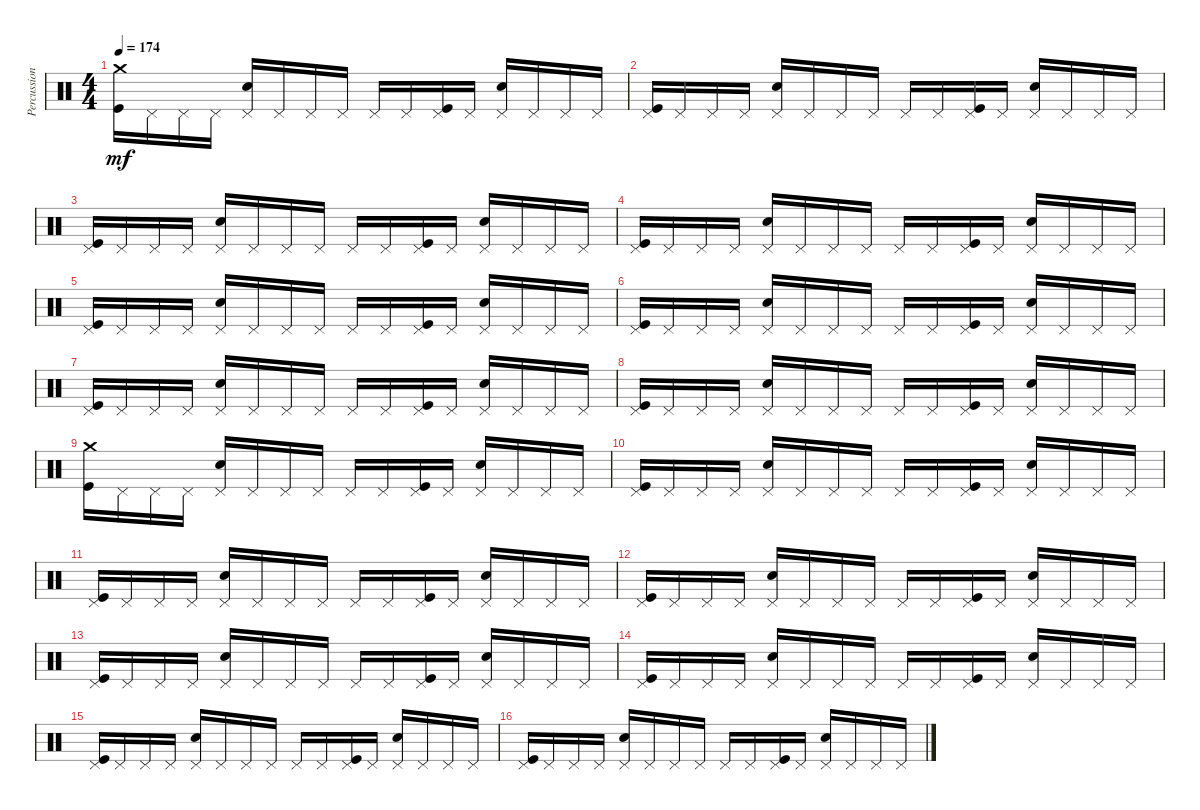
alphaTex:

\track ("Percussion" "Percussion") {instrument percussion}
\staff {score}
\articulation defaults
\ts (4 4)
\tempo 174
\clef neutral
\ks c
("Crash medium (hit)" "Kick (hit)").16{dy mf} "Pedal Hi-Hat (hit)".16 "Pedal Hi-Hat (hit)".16 "Pedal Hi-Hat (hit)".16 ("Pedal Hi-Hat (hit)" "Electric Snare (hit)").16 "Pedal Hi-Hat (hit)".16 "Pedal Hi-Hat (hit)".16 "Pedal Hi-Hat (hit)".16 "Pedal Hi-Hat (hit)".16 "Pedal Hi-Hat (hit)".16 ("Pedal Hi-Hat (hit)" "Kick (hit)").16 "Pedal Hi-Hat (hit)".16 ("Pedal Hi-Hat (hit)" "Electric Snare (hit)").16 "Pedal Hi-Hat (hit)".16 "Pedal Hi-Hat (hit)".16 "Pedal Hi-Hat (hit)".16 |
("Pedal Hi-Hat (hit)" "Kick (hit)").16 "Pedal Hi-Hat (hit)".16 "Pedal Hi-Hat (hit)".16 "Pedal Hi-Hat (hit)".16 ("Pedal Hi-Hat (hit)" "Electric Snare (hit)").16 "Pedal Hi-Hat (hit)".16 "Pedal Hi-Hat (hit)".16 "Pedal Hi-Hat (hit)".16 "Pedal Hi-Hat (hit)".16 "Pedal Hi-Hat (hit)".16 ("Pedal Hi-Hat (hit)" "Kick (hit)").16 "Pedal Hi-Hat (hit)".16 ("Pedal Hi-Hat (hit)" "Electric Snare (hit)").16 "Pedal Hi-Hat (hit)".16 "Pedal Hi-Hat (hit)".16 "Pedal Hi-Hat (hit)".16 |
("Pedal Hi-Hat (hit)" "Kick (hit)").16 "Pedal Hi-Hat (hit)".16 "Pedal Hi-Hat (hit)".16 "Pedal Hi-Hat (hit)".16 ("Pedal Hi-Hat (hit)" "Electric Snare (hit)").16 "Pedal Hi-Hat (hit)".16 "Pedal Hi-Hat (hit)".16 "Pedal Hi-Hat (hit)".16 "Pedal Hi-Hat (hit)".16 "Pedal Hi-Hat (hit)".16 ("Pedal Hi-Hat (hit)" "Kick (hit)").16 "Pedal Hi-Hat (hit)".16 ("Pedal Hi-Hat (hit)" "Electric Snare (hit)").16 "Pedal Hi-Hat (hit)".16 "Pedal Hi-Hat (hit)".16 "Pedal Hi-Hat (hit)".16 |
("Pedal Hi-Hat (hit)" "Kick (hit)").16 "Pedal Hi-Hat (hit)".16 "Pedal Hi-Hat (hit)".16 "Pedal Hi-Hat (hit)".16 ("Pedal Hi-Hat (hit)" "Electric Snare (hit)").16 "Pedal Hi-Hat (hit)".16 "Pedal Hi-Hat (hit)".16 "Pedal Hi-Hat (hit)".16 "Pedal Hi-Hat (hit)".16 "Pedal Hi-Hat (hit)".16 ("Pedal Hi-Hat (hit)" "Kick (hit)").16 "Pedal Hi-Hat (hit)".16 ("Pedal Hi-Hat (hit)" "Electric Snare (hit)").16 "Pedal Hi-Hat (hit)".16 "Pedal Hi-Hat (hit)".16 "Pedal Hi-Hat (hit)".16 |
("Pedal Hi-Hat (hit)" "Kick (hit)").16 "Pedal Hi-Hat (hit)".16 "Pedal Hi-Hat (hit)".16 "Pedal Hi-Hat (hit)".16 ("Pedal Hi-Hat (hit)" "Electric Snare (hit)").16 "Pedal Hi-Hat (hit)".16 "Pedal Hi-Hat (hit)".16 "Pedal Hi-Hat (hit)".16 "Pedal Hi-Hat (hit)".16 "Pedal Hi-Hat (hit)".16 ("Pedal Hi-Hat (hit)" "Kick (hit)").16 "Pedal Hi-Hat (hit)".16 ("Pedal Hi-Hat (hit)" "Electric Snare (hit)").16 "Pedal Hi-Hat (hit)".16 "Pedal Hi-Hat (hit)".16 "Pedal Hi-Hat (hit)".16 |
("Pedal Hi-Hat (hit)" "Kick (hit)").16 "Pedal Hi-Hat (hit)".16 "Pedal Hi-Hat (hit)".16 "Pedal Hi-Hat (hit)".16 ("Pedal Hi-Hat (hit)" "Electric Snare (hit)").16 "Pedal Hi-Hat (hit)".16 "Pedal Hi-Hat (hit)".16 "Pedal Hi-Hat (hit)".16 "Pedal Hi-Hat (hit)".16 "Pedal Hi-Hat (hit)".16 ("Pedal Hi-Hat (hit)" "Kick (hit)").16 "Pedal Hi-Hat (hit)".16 ("Pedal Hi-Hat (hit)" "Electric Snare (hit)").16 "Pedal Hi-Hat (hit)".16 "Pedal Hi-Hat (hit)".16 "Pedal Hi-Hat (hit)".16 |
("Pedal Hi-Hat (hit)" "Kick (hit)").16 "Pedal Hi-Hat (hit)".16 "Pedal Hi-Hat (hit)".16 "Pedal Hi-Hat (hit)".16 ("Pedal Hi-Hat (hit)" "Electric Snare (hit)").16 "Pedal Hi-Hat (hit)".16 "Pedal Hi-Hat (hit)".16 "Pedal Hi-Hat (hit)".16 "Pedal Hi-Hat (hit)".16 "Pedal Hi-Hat (hit)".16 ("Pedal Hi-Hat (hit)" "Kick (hit)").16 "Pedal Hi-Hat (hit)".16 ("Pedal Hi-Hat (hit)" "Electric Snare (hit)").16 "Pedal Hi-Hat (hit)".16 "Pedal Hi-Hat (hit)".16 "Pedal Hi-Hat (hit)".16 |
("Pedal Hi-Hat (hit)" "Kick (hit)").16 "Pedal Hi-Hat (hit)".16 "Pedal Hi-Hat (hit)".16 "Pedal Hi-Hat (hit)".16 ("Pedal Hi-Hat (hit)" "Electric Snare (hit)").16 "Pedal Hi-Hat (hit)".16 "Pedal Hi-Hat (hit)".16 "Pedal Hi-Hat (hit)".16 "Pedal Hi-Hat (hit)".16 "Pedal Hi-Hat (hit)".16 ("Pedal Hi-Hat (hit)" "Kick (hit)").16 "Pedal Hi-Hat (hit)".16 ("Pedal Hi-Hat (hit)" "Electric Snare (hit)").16 "Pedal Hi-Hat (hit)".16 "Pedal Hi-Hat (hit)".16 "Pedal Hi-Hat (hit)".16 |
("Crash medium (hit)" "Kick (hit)").16 "Pedal Hi-Hat (hit)".16 "Pedal Hi-Hat (hit)".16 "Pedal Hi-Hat (hit)".16 ("Pedal Hi-Hat (hit)" "Electric Snare (hit)").16 "Pedal Hi-Hat (hit)".16 "Pedal Hi-Hat (hit)".16 "Pedal Hi-Hat (hit)".16 "Pedal Hi-Hat (hit)".16 "Pedal Hi-Hat (hit)".16 ("Pedal Hi-Hat (hit)" "Kick (hit)").16 "Pedal Hi-Hat (hit)".16 ("Pedal Hi-Hat (hit)" "Electric Snare (hit)").16 "Pedal Hi-Hat (hit)".16 "Pedal Hi-Hat (hit)".16 "Pedal Hi-Hat (hit)".16 |
("Pedal Hi-Hat (hit)" "Kick (hit)").16 "Pedal Hi-Hat (hit)".16 "Pedal Hi-Hat (hit)".16 "Pedal Hi-Hat (hit)".16 ("Pedal Hi-Hat (hit)" "Electric Snare (hit)").16 "Pedal Hi-Hat (hit)".16 "Pedal Hi-Hat (hit)".16 "Pedal Hi-Hat (hit)".16 "Pedal Hi-Hat (hit)".16 "Pedal Hi-Hat (hit)".16 ("Pedal Hi-Hat (hit)" "Kick (hit)").16 "Pedal Hi-Hat (hit)".16 ("Pedal Hi-Hat (hit)" "Electric Snare (hit)").16 "Pedal Hi-Hat (hit)".16 "Pedal Hi-Hat (hit)".16 "Pedal Hi-Hat (hit)".16 |
("Pedal Hi-Hat (hit)" "Kick (hit)").16 "Pedal Hi-Hat (hit)".16 "Pedal Hi-Hat (hit)".16 "Pedal Hi-Hat (hit)".16 ("Pedal Hi-Hat (hit)" "Electric Snare (hit)").16 "Pedal Hi-Hat (hit)".16 "Pedal Hi-Hat (hit)".16 "Pedal Hi-Hat (hit)".16 "Pedal Hi-Hat (hit)".16 "Pedal Hi-Hat (hit)".16 ("Pedal Hi-Hat (hit)" "Kick (hit)").16 "Pedal Hi-Hat (hit)".16 ("Pedal Hi-Hat (hit)" "Electric Snare (hit)").16 "Pedal Hi-Hat (hit)".16 "Pedal Hi-Hat (hit)".16 "Pedal Hi-Hat (hit)".16 |
("Pedal Hi-Hat (hit)" "Kick (hit)").16 "Pedal Hi-Hat (hit)".16 "Pedal Hi-Hat (hit)".16 "Pedal Hi-Hat (hit)".16 ("Pedal Hi-Hat (hit)" "Electric Snare (hit)").16 "Pedal Hi-Hat (hit)".16 "Pedal Hi-Hat (hit)".16 "Pedal Hi-Hat (hit)".16 "Pedal Hi-Hat (hit)".16 "Pedal Hi-Hat (hit)".16 ("Pedal Hi-Hat (hit)" "Kick (hit)").16 "Pedal Hi-Hat (hit)".16 ("Pedal Hi-Hat (hit)" "Electric Snare (hit)").16 "Pedal Hi-Hat (hit)".16 "Pedal Hi-Hat (hit)".16 "Pedal Hi-Hat (hit)".16 |
("Pedal Hi-Hat (hit)" "Kick (hit)").16 "Pedal Hi-Hat (hit)".16 "Pedal Hi-Hat (hit)".16 "Pedal Hi-Hat (hit)".16 ("Pedal Hi-Hat (hit)" "Electric Snare (hit)").16 "Pedal Hi-Hat (hit)".16 "Pedal Hi-Hat (hit)".16 "Pedal Hi-Hat (hit)".16 "Pedal Hi-Hat (hit)".16 "Pedal Hi-Hat (hit)".16 ("Pedal Hi-Hat (hit)" "Kick (hit)").16 "Pedal Hi-Hat (hit)".16 ("Pedal Hi-Hat (hit)" "Electric Snare (hit)").16 "Pedal Hi-Hat (hit)".16 "Pedal Hi-Hat (hit)".16 "Pedal Hi-Hat (hit)".16 |
("Pedal Hi-Hat (hit)" "Kick (hit)").16 "Pedal Hi-Hat (hit)".16 "Pedal Hi-Hat (hit)".16 "Pedal Hi-Hat (hit)".16 ("Pedal Hi-Hat (hit)" "Electric Snare (hit)").16 "Pedal Hi-Hat (hit)".16 "Pedal Hi-Hat (hit)".16 "Pedal Hi-Hat (hit)".16 "Pedal Hi-Hat (hit)".16 "Pedal Hi-Hat (hit)".16 ("Pedal Hi-Hat (hit)" "Kick (hit)").16 "Pedal Hi-Hat (hit)".16 ("Pedal Hi-Hat (hit)" "Electric Snare (hit)").16 "Pedal Hi-Hat (hit)".16 "Pedal Hi-Hat (hit)".16 "Pedal Hi-Hat (hit)".16 |
("Pedal Hi-Hat (hit)" "Kick (hit)").16 "Pedal Hi-Hat (hit)".16 "Pedal Hi-Hat (hit)".16 "Pedal Hi-Hat (hit)".16 ("Pedal Hi-Hat (hit)" "Electric Snare (hit)").16 "Pedal Hi-Hat (hit)".16 "Pedal Hi-Hat (hit)".16 "Pedal Hi-Hat (hit)".16 "Pedal Hi-Hat (hit)".16 "Pedal Hi-Hat (hit)".16 ("Pedal Hi-Hat (hit)" "Kick (hit)").16 "Pedal Hi-Hat (hit)".16 ("Pedal Hi-Hat (hit)" "Electric Snare (hit)").16 "Pedal Hi-Hat (hit)".16 "Pedal Hi-Hat (hit)".16 "Pedal Hi-Hat (hit)".16 |
("Pedal Hi-Hat (hit)" "Kick (hit)").16 "Pedal Hi-Hat (hit)".16 "Pedal Hi-Hat (hit)".16 "Pedal Hi-Hat (hit)".16 ("Pedal Hi-Hat (hit)" "Electric Snare (hit)").16 "Pedal Hi-Hat (hit)".16 "Pedal Hi-Hat (hit)".16 "Pedal Hi-Hat (hit)".16 "Pedal Hi-Hat (hit)".16 "Pedal Hi-Hat (hit)".16 ("Pedal Hi-Hat (hit)" "Kick (hit)").16 "Pedal Hi-Hat (hit)".16 ("Pedal Hi-Hat (hit)" "Electric Snare (hit)").16 "Pedal Hi-Hat (hit)".16 "Pedal Hi-Hat (hit)".16 "Pedal Hi-Hat (hit)".16
